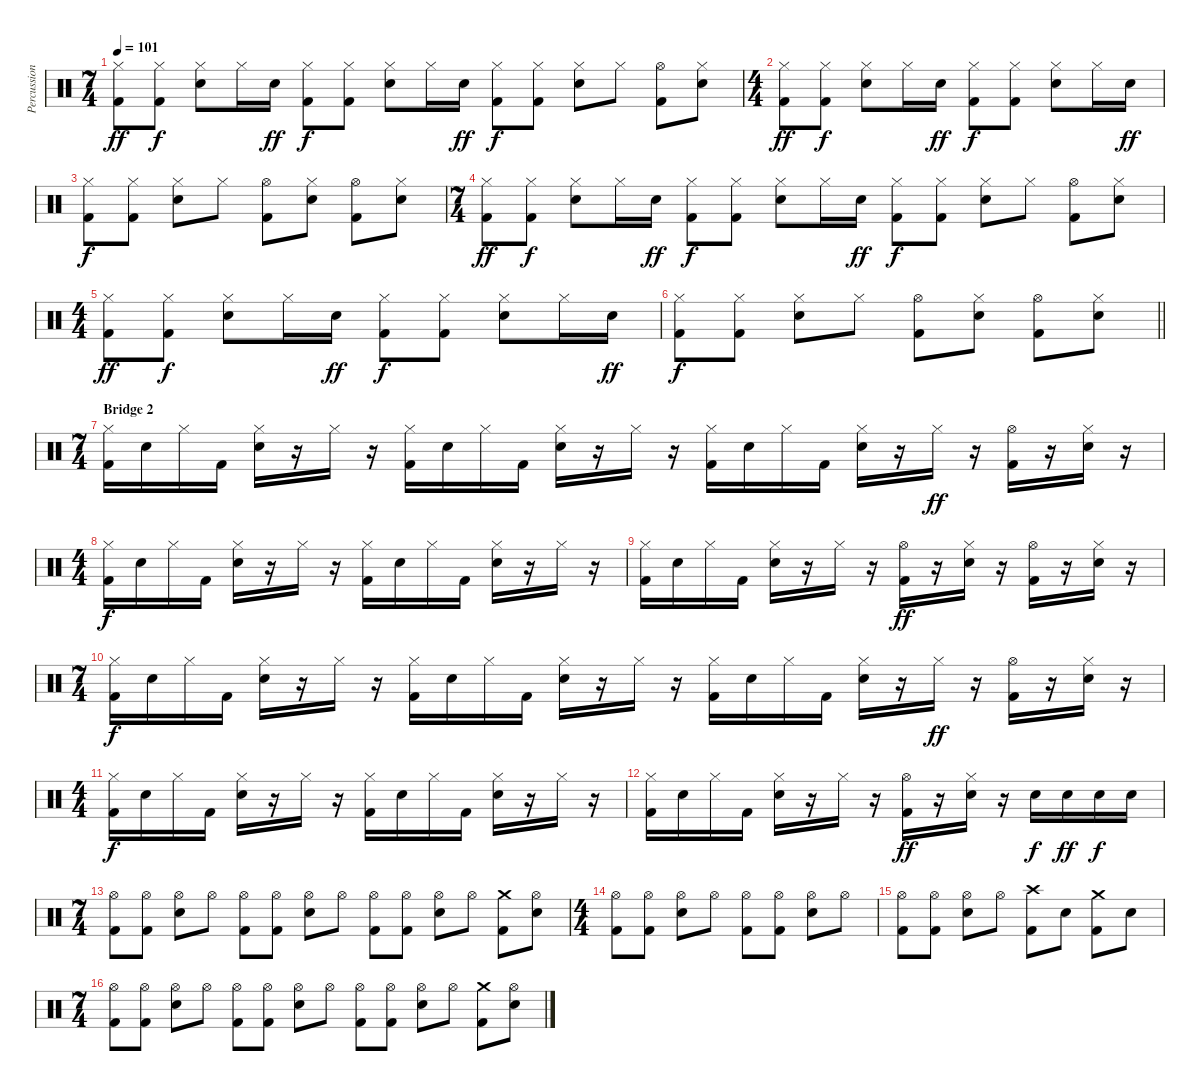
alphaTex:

\track ("Percussion" "Percussion") {instrument percussion}
\staff {score}
\articulation defaults
\ts (7 4)
\tempo 101
\clef neutral
\ks c
("Hi-Hat (closed)" "Kick (hit) 2").8{dy ff} ("Hi-Hat (closed)" "Kick (hit) 2").8{dy f} ("Hi-Hat (closed)" "Electric Snare (hit)").8 "Hi-Hat (closed)".16 "Electric Snare (hit)".16{dy ff} ("Hi-Hat (closed)" "Kick (hit) 2").8{dy f} ("Hi-Hat (closed)" "Kick (hit) 2").8 ("Hi-Hat (closed)" "Electric Snare (hit)").8 "Hi-Hat (closed)".16 "Electric Snare (hit)".16{dy ff} ("Hi-Hat (closed)" "Kick (hit) 2").8{dy f} ("Hi-Hat (closed)" "Kick (hit) 2").8 ("Hi-Hat (closed)" "Electric Snare (hit)").8 "Hi-Hat (closed)".8 ("Hi-Hat (open)" "Kick (hit) 2").8 ("Hi-Hat (closed)" "Electric Snare (hit)").8 |
\ts (4 4)
("Hi-Hat (closed)" "Kick (hit) 2").8{dy ff} ("Hi-Hat (closed)" "Kick (hit) 2").8{dy f} ("Hi-Hat (closed)" "Electric Snare (hit)").8 "Hi-Hat (closed)".16 "Electric Snare (hit)".16{dy ff} ("Hi-Hat (closed)" "Kick (hit) 2").8{dy f} ("Hi-Hat (closed)" "Kick (hit) 2").8 ("Hi-Hat (closed)" "Electric Snare (hit)").8 "Hi-Hat (closed)".16 "Electric Snare (hit)".16{dy ff} |
("Hi-Hat (closed)" "Kick (hit) 2").8{dy f} ("Hi-Hat (closed)" "Kick (hit) 2").8 ("Hi-Hat (closed)" "Electric Snare (hit)").8 "Hi-Hat (closed)".8 ("Hi-Hat (open)" "Kick (hit) 2").8 ("Hi-Hat (closed)" "Electric Snare (hit)").8 ("Hi-Hat (open)" "Kick (hit) 2").8 ("Hi-Hat (closed)" "Electric Snare (hit)").8 |
\ts (7 4)
("Hi-Hat (closed)" "Kick (hit) 2").8{dy ff} ("Hi-Hat (closed)" "Kick (hit) 2").8{dy f} ("Hi-Hat (closed)" "Electric Snare (hit)").8 "Hi-Hat (closed)".16 "Electric Snare (hit)".16{dy ff} ("Hi-Hat (closed)" "Kick (hit) 2").8{dy f} ("Hi-Hat (closed)" "Kick (hit) 2").8 ("Hi-Hat (closed)" "Electric Snare (hit)").8 "Hi-Hat (closed)".16 "Electric Snare (hit)".16{dy ff} ("Hi-Hat (closed)" "Kick (hit) 2").8{dy f} ("Hi-Hat (closed)" "Kick (hit) 2").8 ("Hi-Hat (closed)" "Electric Snare (hit)").8 "Hi-Hat (closed)".8 ("Hi-Hat (open)" "Kick (hit) 2").8 ("Hi-Hat (closed)" "Electric Snare (hit)").8 |
\ts (4 4)
("Hi-Hat (closed)" "Kick (hit) 2").8{dy ff} ("Hi-Hat (closed)" "Kick (hit) 2").8{dy f} ("Hi-Hat (closed)" "Electric Snare (hit)").8 "Hi-Hat (closed)".16 "Electric Snare (hit)".16{dy ff} ("Hi-Hat (closed)" "Kick (hit) 2").8{dy f} ("Hi-Hat (closed)" "Kick (hit) 2").8 ("Hi-Hat (closed)" "Electric Snare (hit)").8 "Hi-Hat (closed)".16 "Electric Snare (hit)".16{dy ff} |
\barLineRight lightlight
("Hi-Hat (closed)" "Kick (hit) 2").8{dy f} ("Hi-Hat (closed)" "Kick (hit) 2").8 ("Hi-Hat (closed)" "Electric Snare (hit)").8 "Hi-Hat (closed)".8 ("Hi-Hat (open)" "Kick (hit) 2").8 ("Hi-Hat (closed)" "Electric Snare (hit)").8 ("Hi-Hat (open)" "Kick (hit) 2").8 ("Hi-Hat (closed)" "Electric Snare (hit)").8 |
\ts (7 4)
\section ("" "Bridge 2")
("Hi-Hat (closed)" "Kick (hit) 2").16 "Electric Snare (hit)".16 "Hi-Hat (closed)".16 "Kick (hit) 2".16 ("Hi-Hat (closed)" "Electric Snare (hit)").16 r.16 "Hi-Hat (closed)".16 r.16 ("Hi-Hat (closed)" "Kick (hit) 2").16 "Electric Snare (hit)".16 "Hi-Hat (closed)".16 "Kick (hit) 2".16 ("Hi-Hat (closed)" "Electric Snare (hit)").16 r.16 "Hi-Hat (closed)".16 r.16 ("Hi-Hat (closed)" "Kick (hit) 2").16 "Electric Snare (hit)".16 "Hi-Hat (closed)".16 "Kick (hit) 2".16 ("Hi-Hat (closed)" "Electric Snare (hit)").16 r.16 "Hi-Hat (closed)".16{dy ff} r.16 ("Hi-Hat (open)" "Kick (hit) 2").16 r.16 ("Hi-Hat (closed)" "Snare (hit) 2").16 r.16 |
\ts (4 4)
("Hi-Hat (closed)" "Kick (hit) 2").16{dy f} "Electric Snare (hit)".16 "Hi-Hat (closed)".16 "Kick (hit) 2".16 ("Hi-Hat (closed)" "Electric Snare (hit)").16 r.16 "Hi-Hat (closed)".16 r.16 ("Hi-Hat (closed)" "Kick (hit) 2").16 "Electric Snare (hit)".16 "Hi-Hat (closed)".16 "Kick (hit) 2".16 ("Hi-Hat (closed)" "Electric Snare (hit)").16 r.16 "Hi-Hat (closed)".16 r.16 |
("Hi-Hat (closed)" "Kick (hit) 2").16 "Electric Snare (hit)".16 "Hi-Hat (closed)".16 "Kick (hit) 2".16 ("Hi-Hat (closed)" "Electric Snare (hit)").16 r.16 "Hi-Hat (closed)".16 r.16 ("Hi-Hat (open)" "Kick (hit) 2").16{dy ff} r.16 ("Hi-Hat (closed)" "Snare (hit) 2").16 r.16 ("Hi-Hat (open)" "Kick (hit) 2").16 r.16 ("Hi-Hat (closed)" "Snare (hit) 2").16 r.16 |
\ts (7 4)
("Hi-Hat (closed)" "Kick (hit) 2").16{dy f} "Electric Snare (hit)".16 "Hi-Hat (closed)".16 "Kick (hit) 2".16 ("Hi-Hat (closed)" "Electric Snare (hit)").16 r.16 "Hi-Hat (closed)".16 r.16 ("Hi-Hat (closed)" "Kick (hit) 2").16 "Electric Snare (hit)".16 "Hi-Hat (closed)".16 "Kick (hit) 2".16 ("Hi-Hat (closed)" "Electric Snare (hit)").16 r.16 "Hi-Hat (closed)".16 r.16 ("Hi-Hat (closed)" "Kick (hit) 2").16 "Electric Snare (hit)".16 "Hi-Hat (closed)".16 "Kick (hit) 2".16 ("Hi-Hat (closed)" "Electric Snare (hit)").16 r.16 "Hi-Hat (closed)".16{dy ff} r.16 ("Hi-Hat (open)" "Kick (hit) 2").16 r.16 ("Hi-Hat (closed)" "Snare (hit) 2").16 r.16 |
\ts (4 4)
("Hi-Hat (closed)" "Kick (hit) 2").16{dy f} "Electric Snare (hit)".16 "Hi-Hat (closed)".16 "Kick (hit) 2".16 ("Hi-Hat (closed)" "Electric Snare (hit)").16 r.16 "Hi-Hat (closed)".16 r.16 ("Hi-Hat (closed)" "Kick (hit) 2").16 "Electric Snare (hit)".16 "Hi-Hat (closed)".16 "Kick (hit) 2".16 ("Hi-Hat (closed)" "Electric Snare (hit)").16 r.16 "Hi-Hat (closed)".16 r.16 |
("Hi-Hat (closed)" "Kick (hit) 2").16 "Electric Snare (hit)".16 "Hi-Hat (closed)".16 "Kick (hit) 2".16 ("Hi-Hat (closed)" "Electric Snare (hit)").16 r.16 "Hi-Hat (closed)".16 r.16 ("Hi-Hat (open)" "Kick (hit) 2").16{dy ff} r.16 ("Hi-Hat (closed)" "Snare (hit) 2").16 r.16 "Electric Snare (hit)".16{dy f} "Electric Snare (hit)".16{dy ff} "Electric Snare (hit)".16{dy f} "Electric Snare (hit)".16 |
\ts (7 4)
("Hi-Hat (open)" "Kick (hit) 2").8 ("Hi-Hat (open)" "Kick (hit) 2").8 ("Hi-Hat (open)" "Electric Snare (hit)").8 "Hi-Hat (open)".8 ("Hi-Hat (open)" "Kick (hit) 2").8 ("Hi-Hat (open)" "Kick (hit) 2").8 ("Hi-Hat (open)" "Electric Snare (hit)").8 "Hi-Hat (open)".8 ("Hi-Hat (open)" "Kick (hit) 2").8 ("Hi-Hat (open)" "Kick (hit) 2").8 ("Hi-Hat (open)" "Electric Snare (hit)").8 "Hi-Hat (open)".8 ("Crash medium (hit)" "Kick (hit) 2").8 ("Hi-Hat (open)" "Electric Snare (hit)").8 |
\ts (4 4)
("Hi-Hat (open)" "Kick (hit) 2").8 ("Hi-Hat (open)" "Kick (hit) 2").8 ("Hi-Hat (open)" "Electric Snare (hit)").8 "Hi-Hat (open)".8 ("Hi-Hat (open)" "Kick (hit) 2").8 ("Hi-Hat (open)" "Kick (hit) 2").8 ("Hi-Hat (open)" "Electric Snare (hit)").8 "Hi-Hat (open)".8 |
("Hi-Hat (open)" "Kick (hit) 2").8 ("Hi-Hat (open)" "Kick (hit) 2").8 ("Hi-Hat (open)" "Electric Snare (hit)").8 "Hi-Hat (open)".8 ("Crash high (hit)" "Kick (hit) 2").8 "Electric Snare (hit)".8 ("Crash medium (hit)" "Kick (hit) 2").8 "Electric Snare (hit)".8 |
\ts (7 4)
("Hi-Hat (open)" "Kick (hit) 2").8 ("Hi-Hat (open)" "Kick (hit) 2").8 ("Hi-Hat (open)" "Electric Snare (hit)").8 "Hi-Hat (open)".8 ("Hi-Hat (open)" "Kick (hit) 2").8 ("Hi-Hat (open)" "Kick (hit) 2").8 ("Hi-Hat (open)" "Electric Snare (hit)").8 "Hi-Hat (open)".8 ("Hi-Hat (open)" "Kick (hit) 2").8 ("Hi-Hat (open)" "Kick (hit) 2").8 ("Hi-Hat (open)" "Electric Snare (hit)").8 "Hi-Hat (open)".8 ("Crash medium (hit)" "Kick (hit) 2").8 ("Hi-Hat (open)" "Electric Snare (hit)").8
